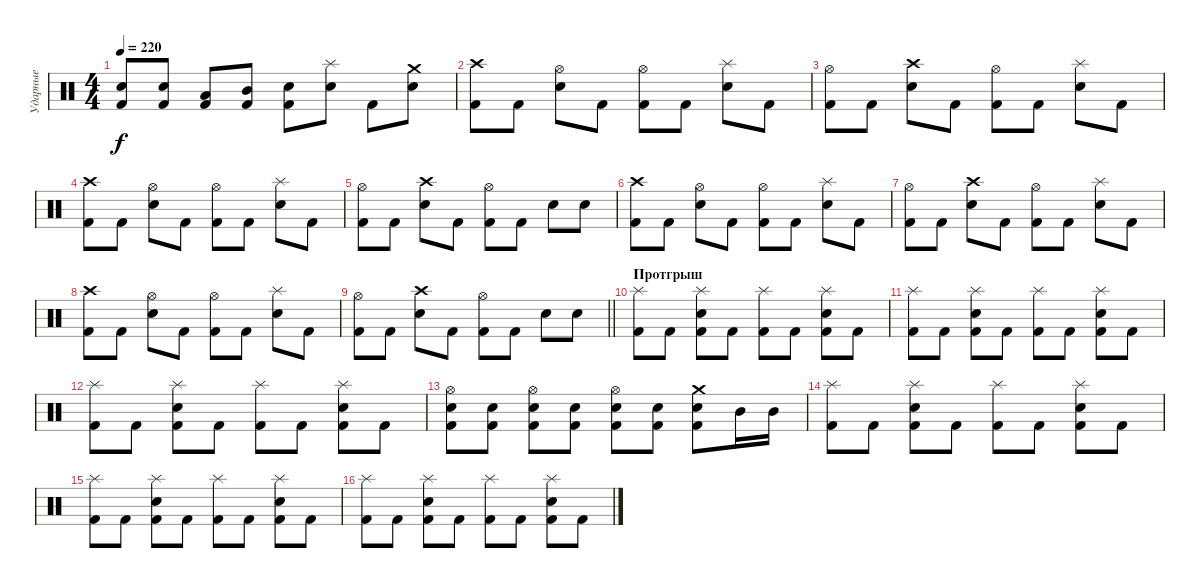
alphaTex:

\track ("Ударные" "Ударные") {instrument percussion}
\staff {score}
\articulation defaults
\ts (4 4)
\tempo 220
\clef neutral
\ks c
("Kick (hit) 2" "Electric Snare (hit)").8{dy f} ("Kick (hit) 2" "Electric Snare (hit)").8 ("Kick (hit) 2" "Low Tom (hit)").8 ("Kick (hit) 2" "Mid Tom (hit)").8 ("Kick (hit) 2" "Electric Snare (hit)").8 ("Splash (hit)" "Electric Snare (hit)").8 "Kick (hit) 2".8 ("Electric Snare (hit)" "Crash medium (hit)").8 |
("Kick (hit) 2" "Crash high (hit)").8 "Kick (hit) 2".8 ("Electric Snare (hit)" "Hi-Hat (open)").8 "Kick (hit) 2".8 ("Kick (hit) 2" "Hi-Hat (open)").8 "Kick (hit) 2".8 ("Electric Snare (hit)" "Splash (hit)").8 "Kick (hit) 2".8 |
("Kick (hit) 2" "Hi-Hat (open)").8 "Kick (hit) 2".8 ("Electric Snare (hit)" "Crash high (hit)").8 "Kick (hit) 2".8 ("Kick (hit) 2" "Hi-Hat (open)").8 "Kick (hit) 2".8 ("Electric Snare (hit)" "Splash (hit)").8 "Kick (hit) 2".8 |
("Kick (hit) 2" "Crash high (hit)").8 "Kick (hit) 2".8 ("Electric Snare (hit)" "Hi-Hat (open)").8 "Kick (hit) 2".8 ("Kick (hit) 2" "Hi-Hat (open)").8 "Kick (hit) 2".8 ("Electric Snare (hit)" "Splash (hit)").8 "Kick (hit) 2".8 |
("Kick (hit) 2" "Hi-Hat (open)").8 "Kick (hit) 2".8 ("Electric Snare (hit)" "Crash high (hit)").8 "Kick (hit) 2".8 ("Kick (hit) 2" "Hi-Hat (open)").8 "Kick (hit) 2".8 "Electric Snare (hit)".8 "Electric Snare (hit)".8 |
("Kick (hit) 2" "Crash high (hit)").8 "Kick (hit) 2".8 ("Electric Snare (hit)" "Hi-Hat (open)").8 "Kick (hit) 2".8 ("Kick (hit) 2" "Hi-Hat (open)").8 "Kick (hit) 2".8 ("Electric Snare (hit)" "Splash (hit)").8 "Kick (hit) 2".8 |
("Kick (hit) 2" "Hi-Hat (open)").8 "Kick (hit) 2".8 ("Electric Snare (hit)" "Crash high (hit)").8 "Kick (hit) 2".8 ("Kick (hit) 2" "Hi-Hat (open)").8 "Kick (hit) 2".8 ("Electric Snare (hit)" "Splash (hit)").8 "Kick (hit) 2".8 |
("Kick (hit) 2" "Crash high (hit)").8 "Kick (hit) 2".8 ("Electric Snare (hit)" "Hi-Hat (open)").8 "Kick (hit) 2".8 ("Kick (hit) 2" "Hi-Hat (open)").8 "Kick (hit) 2".8 ("Electric Snare (hit)" "Splash (hit)").8 "Kick (hit) 2".8 |
\barLineRight lightlight
("Kick (hit) 2" "Hi-Hat (open)").8 "Kick (hit) 2".8 ("Electric Snare (hit)" "Crash high (hit)").8 "Kick (hit) 2".8 ("Kick (hit) 2" "Hi-Hat (open)").8 "Kick (hit) 2".8 "Electric Snare (hit)".8 "Electric Snare (hit)".8 |
\section ("" "Протгрыш")
("Splash (hit)" "Kick (hit) 2").8 "Kick (hit) 2".8 ("Splash (hit)" "Electric Snare (hit)" "Kick (hit) 2").8 "Kick (hit) 2".8 ("Splash (hit)" "Kick (hit) 2").8 "Kick (hit) 2".8 ("Splash (hit)" "Electric Snare (hit)" "Kick (hit) 2").8 "Kick (hit) 2".8 |
("Splash (hit)" "Kick (hit) 2").8 "Kick (hit) 2".8 ("Splash (hit)" "Electric Snare (hit)" "Kick (hit) 2").8 "Kick (hit) 2".8 ("Splash (hit)" "Kick (hit) 2").8 "Kick (hit) 2".8 ("Splash (hit)" "Electric Snare (hit)" "Kick (hit) 2").8 "Kick (hit) 2".8 |
("Splash (hit)" "Kick (hit) 2").8 "Kick (hit) 2".8 ("Splash (hit)" "Electric Snare (hit)" "Kick (hit) 2").8 "Kick (hit) 2".8 ("Splash (hit)" "Kick (hit) 2").8 "Kick (hit) 2".8 ("Splash (hit)" "Electric Snare (hit)" "Kick (hit) 2").8 "Kick (hit) 2".8 |
("Kick (hit) 2" "Electric Snare (hit)" "Hi-Hat (open)").8 ("Kick (hit) 2" "Electric Snare (hit)").8 ("Kick (hit) 2" "Electric Snare (hit)" "Hi-Hat (open)").8 ("Kick (hit) 2" "Electric Snare (hit)").8 ("Kick (hit) 2" "Electric Snare (hit)" "Hi-Hat (open)").8 ("Kick (hit) 2" "Electric Snare (hit)").8 ("Kick (hit) 2" "Electric Snare (hit)" "Crash medium (hit)").8 "Mid Tom (hit)".16 "Mid Tom (hit)".16 |
("Splash (hit)" "Kick (hit) 2").8 "Kick (hit) 2".8 ("Splash (hit)" "Electric Snare (hit)" "Kick (hit) 2").8 "Kick (hit) 2".8 ("Splash (hit)" "Kick (hit) 2").8 "Kick (hit) 2".8 ("Splash (hit)" "Electric Snare (hit)" "Kick (hit) 2").8 "Kick (hit) 2".8 |
("Splash (hit)" "Kick (hit) 2").8 "Kick (hit) 2".8 ("Splash (hit)" "Electric Snare (hit)" "Kick (hit) 2").8 "Kick (hit) 2".8 ("Splash (hit)" "Kick (hit) 2").8 "Kick (hit) 2".8 ("Splash (hit)" "Electric Snare (hit)" "Kick (hit) 2").8 "Kick (hit) 2".8 |
("Splash (hit)" "Kick (hit) 2").8 "Kick (hit) 2".8 ("Splash (hit)" "Electric Snare (hit)" "Kick (hit) 2").8 "Kick (hit) 2".8 ("Splash (hit)" "Kick (hit) 2").8 "Kick (hit) 2".8 ("Splash (hit)" "Electric Snare (hit)" "Kick (hit) 2").8 "Kick (hit) 2".8
